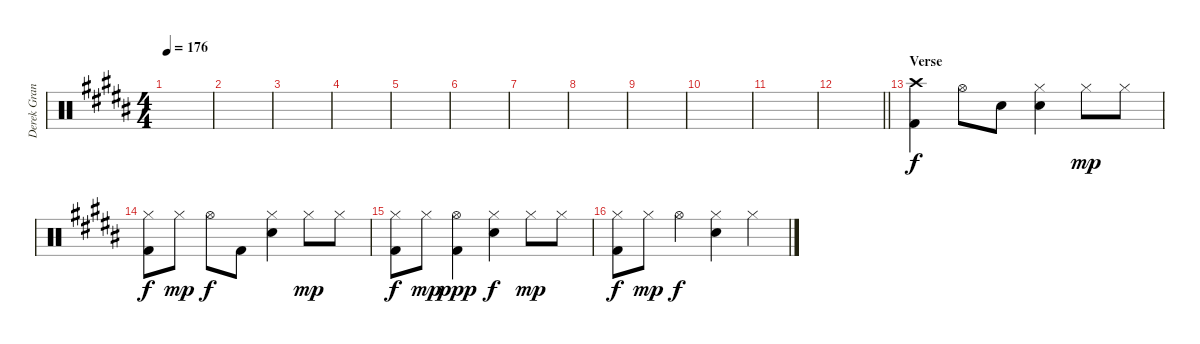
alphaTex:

\track ("Derek Grant - Drums" "Derek Gran") {instrument percussion}
\staff {score}
\articulation defaults
\ts (4 4)
\tempo 176
\clef neutral
\ks b
|
|
|
|
|
|
|
|
|
|
|
\barLineRight lightlight
|
\section ("" "Verse")
("Crash high (hit)" "Kick (hit) 2").4 "Hi-Hat (open)".8 "Snare (hit) 2".8 ("Hi-Hat (closed)" "Snare (hit) 2").4{dy f} "Hi-Hat (closed)".8{dy mp} "Hi-Hat (closed)".8 |
("Hi-Hat (closed)" "Kick (hit) 2").8{dy f} "Hi-Hat (closed)".8{dy mp} "Hi-Hat (open)".8{dy f} "Kick (hit) 2".8 ("Hi-Hat (closed)" "Snare (hit) 2").4 "Hi-Hat (closed)".8{dy mp} "Hi-Hat (closed)".8 |
("Hi-Hat (closed)" "Kick (hit) 2").8{dy f} "Hi-Hat (closed)".8{dy mp} ("Hi-Hat (open)" "Kick (hit) 2").4{dy ppp} ("Snare (hit) 2" "Hi-Hat (closed)").4{dy f} "Hi-Hat (closed)".8{dy mp} "Hi-Hat (closed)".8 |
("Hi-Hat (closed)" "Kick (hit) 2").8{dy f} "Hi-Hat (closed)".8{dy mp} "Hi-Hat (open)".4{dy f} ("Hi-Hat (closed)" "Snare (hit) 2").4 "Hi-Hat (closed)".4
